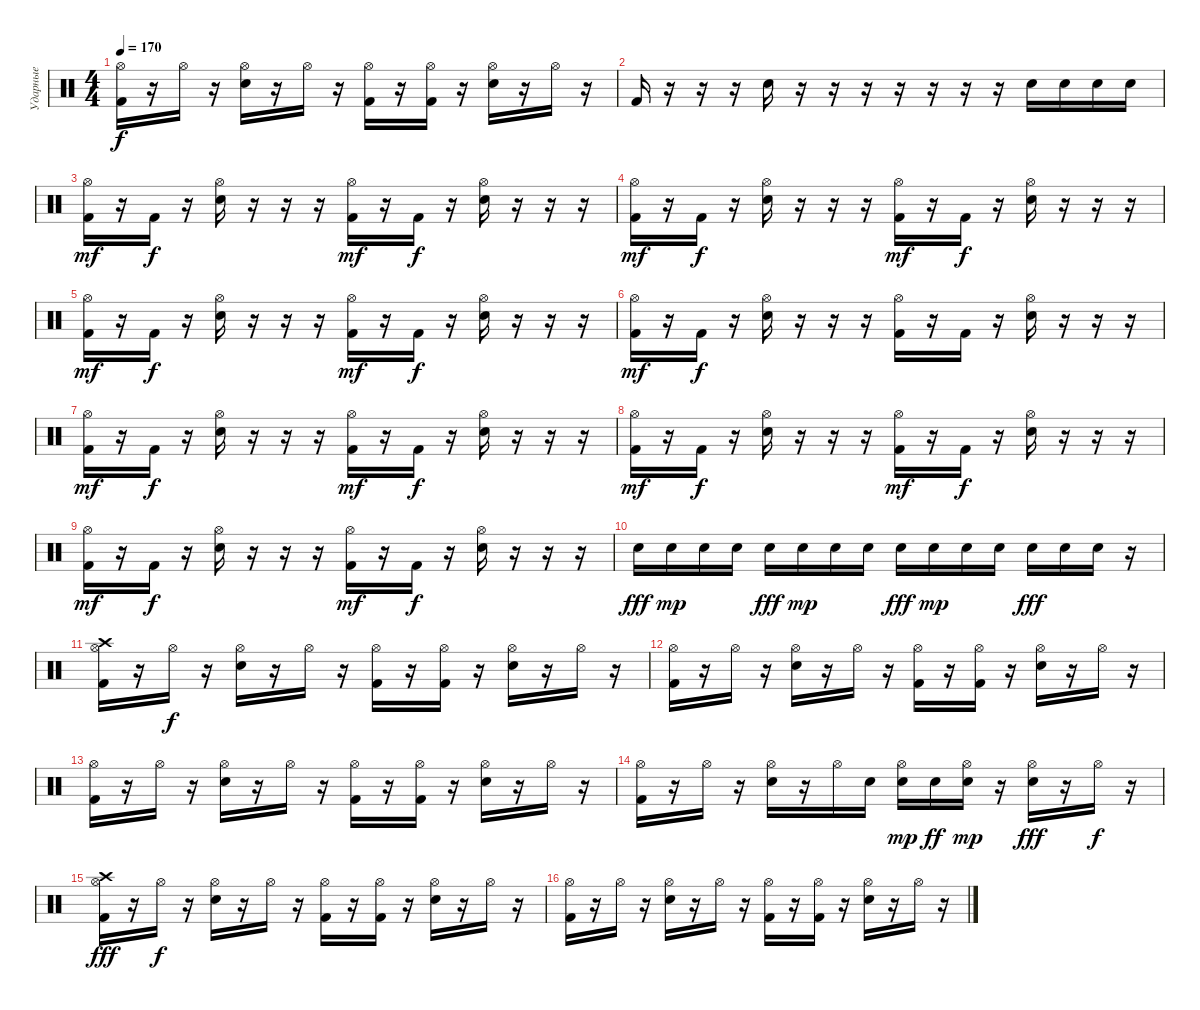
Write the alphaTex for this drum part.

\track ("Ударные" "Ударные") {instrument percussion}
\staff {score}
\articulation defaults
\ts (4 4)
\tempo 170
\clef neutral
\ks c
("Kick (hit) 2" "Hi-Hat (open)").16{dy f} r.16 "Hi-Hat (open)".16 r.16 ("Snare (hit) 2" "Hi-Hat (open)").16 r.16 "Hi-Hat (open)".16 r.16 ("Kick (hit) 2" "Hi-Hat (open)").16 r.16 ("Kick (hit) 2" "Hi-Hat (open)").16 r.16 ("Snare (hit) 2" "Hi-Hat (open)").16 r.16 "Hi-Hat (open)".16 r.16 |
"Kick (hit) 2".16 r.16 r.16 r.16 "Snare (hit) 2".16 r.16 r.16 r.16 r.16 r.16 r.16 r.16 "Snare (hit) 2".16 "Snare (hit) 2".16 "Snare (hit) 2".16 "Snare (hit) 2".16 |
("Kick (hit) 2" "Hi-Hat (open)").16{dy mf} r.16 "Kick (hit) 2".16{dy f} r.16 ("Snare (hit) 2" "Hi-Hat (open)").16 r.16 r.16 r.16 ("Kick (hit) 2" "Hi-Hat (open)").16{dy mf} r.16 "Kick (hit) 2".16{dy f} r.16 ("Snare (hit) 2" "Hi-Hat (open)").16 r.16 r.16 r.16 |
("Kick (hit) 2" "Hi-Hat (open)").16{dy mf} r.16 "Kick (hit) 2".16{dy f} r.16 ("Snare (hit) 2" "Hi-Hat (open)").16 r.16 r.16 r.16 ("Kick (hit) 2" "Hi-Hat (open)").16{dy mf} r.16 "Kick (hit) 2".16{dy f} r.16 ("Snare (hit) 2" "Hi-Hat (open)").16 r.16 r.16 r.16 |
("Kick (hit) 2" "Hi-Hat (open)").16{dy mf} r.16 "Kick (hit) 2".16{dy f} r.16 ("Snare (hit) 2" "Hi-Hat (open)").16 r.16 r.16 r.16 ("Kick (hit) 2" "Hi-Hat (open)").16{dy mf} r.16 "Kick (hit) 2".16{dy f} r.16 ("Snare (hit) 2" "Hi-Hat (open)").16 r.16 r.16 r.16 |
("Kick (hit) 2" "Hi-Hat (open)").16{dy mf} r.16 "Kick (hit) 2".16{dy f} r.16 ("Snare (hit) 2" "Hi-Hat (open)").16 r.16 r.16 r.16 ("Kick (hit) 2" "Hi-Hat (open)").16 r.16 "Kick (hit) 2".16 r.16 ("Snare (hit) 2" "Hi-Hat (open)").16 r.16 r.16 r.16 |
("Kick (hit) 2" "Hi-Hat (open)").16{dy mf} r.16 "Kick (hit) 2".16{dy f} r.16 ("Snare (hit) 2" "Hi-Hat (open)").16 r.16 r.16 r.16 ("Kick (hit) 2" "Hi-Hat (open)").16{dy mf} r.16 "Kick (hit) 2".16{dy f} r.16 ("Snare (hit) 2" "Hi-Hat (open)").16 r.16 r.16 r.16 |
("Kick (hit) 2" "Hi-Hat (open)").16{dy mf} r.16 "Kick (hit) 2".16{dy f} r.16 ("Snare (hit) 2" "Hi-Hat (open)").16 r.16 r.16 r.16 ("Kick (hit) 2" "Hi-Hat (open)").16{dy mf} r.16 "Kick (hit) 2".16{dy f} r.16 ("Snare (hit) 2" "Hi-Hat (open)").16 r.16 r.16 r.16 |
("Kick (hit) 2" "Hi-Hat (open)").16{dy mf} r.16 "Kick (hit) 2".16{dy f} r.16 ("Snare (hit) 2" "Hi-Hat (open)").16 r.16 r.16 r.16 ("Kick (hit) 2" "Hi-Hat (open)").16{dy mf} r.16 "Kick (hit) 2".16{dy f} r.16 ("Snare (hit) 2" "Hi-Hat (open)").16 r.16 r.16 r.16 |
"Snare (hit) 2".16{dy fff} "Snare (hit) 2".16{dy mp} "Snare (hit) 2".16 "Snare (hit) 2".16 "Snare (hit) 2".16{dy fff} "Snare (hit) 2".16{dy mp} "Snare (hit) 2".16 "Snare (hit) 2".16 "Snare (hit) 2".16{dy fff} "Snare (hit) 2".16{dy mp} "Snare (hit) 2".16 "Snare (hit) 2".16 "Snare (hit) 2".16{dy fff} "Snare (hit) 2".16 "Snare (hit) 2".16 r.16 |
("Kick (hit) 2" "Crash high (hit)" "Hi-Hat (open)").16 r.16 "Hi-Hat (open)".16{dy f} r.16 ("Snare (hit) 2" "Hi-Hat (open)").16 r.16 "Hi-Hat (open)".16 r.16 ("Kick (hit) 2" "Hi-Hat (open)").16 r.16 ("Kick (hit) 2" "Hi-Hat (open)").16 r.16 ("Snare (hit) 2" "Hi-Hat (open)").16 r.16 "Hi-Hat (open)".16 r.16 |
("Kick (hit) 2" "Hi-Hat (open)").16 r.16 "Hi-Hat (open)".16 r.16 ("Snare (hit) 2" "Hi-Hat (open)").16 r.16 "Hi-Hat (open)".16 r.16 ("Kick (hit) 2" "Hi-Hat (open)").16 r.16 ("Kick (hit) 2" "Hi-Hat (open)").16 r.16 ("Snare (hit) 2" "Hi-Hat (open)").16 r.16 "Hi-Hat (open)".16 r.16 |
("Kick (hit) 2" "Hi-Hat (open)").16 r.16 "Hi-Hat (open)".16 r.16 ("Snare (hit) 2" "Hi-Hat (open)").16 r.16 "Hi-Hat (open)".16 r.16 ("Kick (hit) 2" "Hi-Hat (open)").16 r.16 ("Kick (hit) 2" "Hi-Hat (open)").16 r.16 ("Snare (hit) 2" "Hi-Hat (open)").16 r.16 "Hi-Hat (open)".16 r.16 |
("Kick (hit) 2" "Hi-Hat (open)").16 r.16 "Hi-Hat (open)".16 r.16 ("Snare (hit) 2" "Hi-Hat (open)").16 r.16 "Hi-Hat (open)".16 "Snare (hit) 2".16 ("Snare (hit) 2" "Hi-Hat (open)").16{dy mp} "Snare (hit) 2".16{dy ff} ("Snare (hit) 2" "Hi-Hat (open)").16{dy mp} r.16 ("Snare (hit) 2" "Hi-Hat (open)").16{dy fff} r.16 "Hi-Hat (open)".16{dy f} r.16 |
("Kick (hit) 2" "Crash high (hit)" "Hi-Hat (open)").16{dy fff} r.16 "Hi-Hat (open)".16{dy f} r.16 ("Snare (hit) 2" "Hi-Hat (open)").16 r.16 "Hi-Hat (open)".16 r.16 ("Kick (hit) 2" "Hi-Hat (open)").16 r.16 ("Kick (hit) 2" "Hi-Hat (open)").16 r.16 ("Snare (hit) 2" "Hi-Hat (open)").16 r.16 "Hi-Hat (open)".16 r.16 |
("Kick (hit) 2" "Hi-Hat (open)").16 r.16 "Hi-Hat (open)".16 r.16 ("Snare (hit) 2" "Hi-Hat (open)").16 r.16 "Hi-Hat (open)".16 r.16 ("Kick (hit) 2" "Hi-Hat (open)").16 r.16 ("Kick (hit) 2" "Hi-Hat (open)").16 r.16 ("Snare (hit) 2" "Hi-Hat (open)").16 r.16 "Hi-Hat (open)".16 r.16
